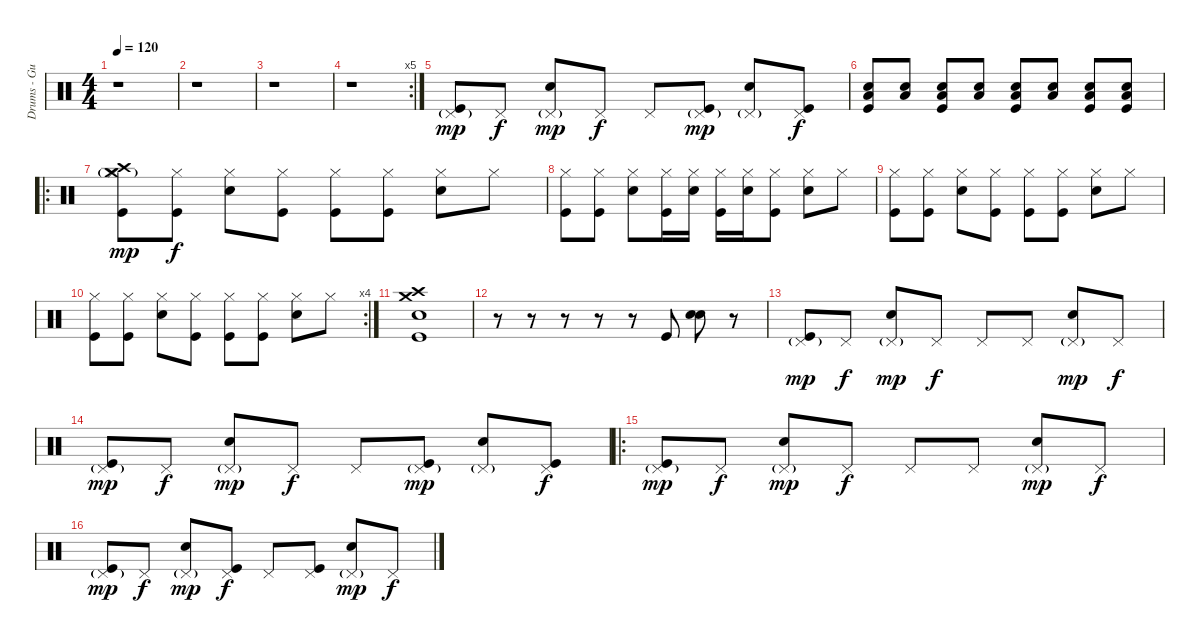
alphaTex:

\track ("Drums - Gustav" "Drums - Gu") {instrument percussion}
\staff {score}
\articulation defaults
\ts (4 4)
\tempo 120
\clef neutral
\ks c
r.1{dy mp} |
r.1 |
r.1 |
\rc 5
r.1 |
("Kick (hit)" "Pedal Hi-Hat (hit)"{g}).8 "Pedal Hi-Hat (hit)".8{dy f} ("Pedal Hi-Hat (hit)"{g} "Snare (hit) 2").8{dy mp} "Pedal Hi-Hat (hit)".8{dy f} "Pedal Hi-Hat (hit)".8 ("Kick (hit)" "Pedal Hi-Hat (hit)"{g}).8{dy mp} ("Pedal Hi-Hat (hit)"{g} "Snare (hit) 2").8 ("Kick (hit)" "Pedal Hi-Hat (hit)").8{dy f volume 8} |
("Kick (hit)" "Snare (hit) 2" "Low Floor Tom (hit)").8{volume 15} ("Snare (hit) 2" "Low Floor Tom (hit)").8 ("Kick (hit)" "Snare (hit) 2" "Low Floor Tom (hit)").8 ("Snare (hit) 2" "Low Floor Tom (hit)").8 ("Kick (hit)" "Snare (hit) 2" "Low Floor Tom (hit)").8 ("Snare (hit) 2" "Low Floor Tom (hit)").8 ("Kick (hit)" "Snare (hit) 2" "Low Floor Tom (hit)").8 ("Kick (hit)" "Snare (hit) 2" "Low Floor Tom (hit)").8 |
\ro
("Kick (hit)" "Hi-Hat (closed)"{g} "Crash high (hit)" "Crash medium (hit)").8{dy mp} ("Kick (hit)" "Hi-Hat (closed)").8{dy f} ("Hi-Hat (closed)" "Snare (hit) 2").8 ("Kick (hit)" "Hi-Hat (closed)").8 ("Kick (hit)" "Hi-Hat (closed)").8 ("Kick (hit)" "Hi-Hat (closed)").8 ("Hi-Hat (closed)" "Snare (hit) 2").8 "Hi-Hat (closed)".8 |
("Kick (hit)" "Hi-Hat (closed)").8 ("Kick (hit)" "Hi-Hat (closed)").8 ("Hi-Hat (closed)" "Snare (hit) 2").8 ("Kick (hit)" "Hi-Hat (closed)").16 ("Hi-Hat (closed)" "Snare (hit) 2").16 ("Kick (hit)" "Hi-Hat (closed)").16 ("Hi-Hat (closed)" "Snare (hit) 2").16 ("Kick (hit)" "Hi-Hat (closed)").8 ("Hi-Hat (closed)" "Snare (hit) 2").8 "Hi-Hat (closed)".8 |
("Kick (hit)" "Hi-Hat (closed)").8 ("Kick (hit)" "Hi-Hat (closed)").8 ("Hi-Hat (closed)" "Snare (hit) 2").8 ("Kick (hit)" "Hi-Hat (closed)").8 ("Kick (hit)" "Hi-Hat (closed)").8 ("Kick (hit)" "Hi-Hat (closed)").8 ("Hi-Hat (closed)" "Snare (hit) 2").8 "Hi-Hat (closed)".8 |
\rc 4
("Kick (hit)" "Hi-Hat (closed)").8 ("Kick (hit)" "Hi-Hat (closed)").8 ("Hi-Hat (closed)" "Snare (hit) 2").8 ("Kick (hit)" "Hi-Hat (closed)").8 ("Kick (hit)" "Hi-Hat (closed)").8 ("Kick (hit)" "Hi-Hat (closed)").8 ("Hi-Hat (closed)" "Snare (hit) 2").8 "Hi-Hat (closed)".8 |
("Kick (hit)" "Snare (hit)" "Crash high (hit)" "Crash medium (hit)").1 |
r.8 r.8 r.8 r.8 r.8 "Kick (hit)".8 ("Snare (hit) 2" "Snare (hit) 2").8 r.8 |
("Kick (hit)" "Pedal Hi-Hat (hit)"{g}).8{dy mp} "Pedal Hi-Hat (hit)".8{dy f} ("Pedal Hi-Hat (hit)"{g} "Snare (hit) 2").8{dy mp} "Pedal Hi-Hat (hit)".8{dy f} "Pedal Hi-Hat (hit)".8 "Pedal Hi-Hat (hit)".8 ("Pedal Hi-Hat (hit)"{g} "Snare (hit) 2").8{dy mp} "Pedal Hi-Hat (hit)".8{dy f} |
("Kick (hit)" "Pedal Hi-Hat (hit)"{g}).8{dy mp} "Pedal Hi-Hat (hit)".8{dy f} ("Pedal Hi-Hat (hit)"{g} "Snare (hit) 2").8{dy mp} "Pedal Hi-Hat (hit)".8{dy f} "Pedal Hi-Hat (hit)".8 ("Kick (hit)" "Pedal Hi-Hat (hit)"{g}).8{dy mp} ("Pedal Hi-Hat (hit)"{g} "Snare (hit) 2").8 ("Kick (hit)" "Pedal Hi-Hat (hit)").8{dy f} |
\ro
("Kick (hit)" "Pedal Hi-Hat (hit)"{g}).8{dy mp} "Pedal Hi-Hat (hit)".8{dy f} ("Pedal Hi-Hat (hit)"{g} "Snare (hit) 2").8{dy mp} "Pedal Hi-Hat (hit)".8{dy f} "Pedal Hi-Hat (hit)".8 "Pedal Hi-Hat (hit)".8 ("Pedal Hi-Hat (hit)"{g} "Snare (hit) 2").8{dy mp} "Pedal Hi-Hat (hit)".8{dy f} |
("Kick (hit)" "Pedal Hi-Hat (hit)"{g}).8{dy mp} "Pedal Hi-Hat (hit)".8{dy f} ("Pedal Hi-Hat (hit)"{g} "Snare (hit) 2").8{dy mp} ("Kick (hit)" "Pedal Hi-Hat (hit)").8{dy f} "Pedal Hi-Hat (hit)".8 ("Kick (hit)" "Pedal Hi-Hat (hit)").8 ("Pedal Hi-Hat (hit)"{g} "Snare (hit) 2").8{dy mp} "Pedal Hi-Hat (hit)".8{dy f}
